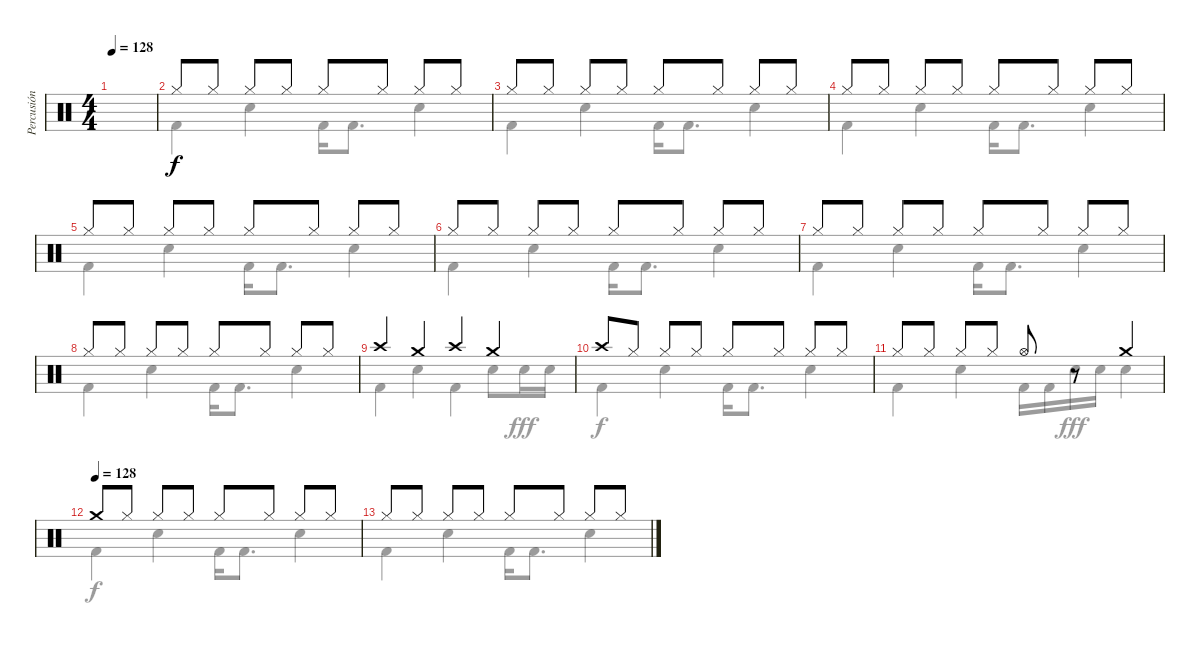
\track ("Percusión" "Percusión") {instrument percussion}
\staff {score}
\articulation defaults
\voice
\ts (4 4)
\tempo 128
\clef neutral
\ks c
|
"Hi-Hat (closed)".8 "Hi-Hat (closed)".8 "Hi-Hat (closed)".8 "Hi-Hat (closed)".8 "Hi-Hat (closed)".8 "Hi-Hat (closed)".8 "Hi-Hat (closed)".8 "Hi-Hat (closed)".8 |
"Hi-Hat (closed)".8 "Hi-Hat (closed)".8 "Hi-Hat (closed)".8 "Hi-Hat (closed)".8 "Hi-Hat (closed)".8 "Hi-Hat (closed)".8 "Hi-Hat (closed)".8 "Hi-Hat (closed)".8 |
"Hi-Hat (closed)".8 "Hi-Hat (closed)".8 "Hi-Hat (closed)".8 "Hi-Hat (closed)".8 "Hi-Hat (closed)".8 "Hi-Hat (closed)".8 "Hi-Hat (closed)".8 "Hi-Hat (closed)".8 |
"Hi-Hat (closed)".8 "Hi-Hat (closed)".8 "Hi-Hat (closed)".8 "Hi-Hat (closed)".8 "Hi-Hat (closed)".8 "Hi-Hat (closed)".8 "Hi-Hat (closed)".8 "Hi-Hat (closed)".8 |
"Hi-Hat (closed)".8 "Hi-Hat (closed)".8 "Hi-Hat (closed)".8 "Hi-Hat (closed)".8 "Hi-Hat (closed)".8 "Hi-Hat (closed)".8 "Hi-Hat (closed)".8 "Hi-Hat (closed)".8 |
"Hi-Hat (closed)".8 "Hi-Hat (closed)".8 "Hi-Hat (closed)".8 "Hi-Hat (closed)".8 "Hi-Hat (closed)".8 "Hi-Hat (closed)".8 "Hi-Hat (closed)".8 "Hi-Hat (closed)".8 |
"Hi-Hat (closed)".8 "Hi-Hat (closed)".8 "Hi-Hat (closed)".8 "Hi-Hat (closed)".8 "Hi-Hat (closed)".8 "Hi-Hat (closed)".8 "Hi-Hat (closed)".8 "Hi-Hat (closed)".8 |
"Crash high (hit)".4 "Crash medium (hit)".4 "Crash high (hit)".4 "Crash medium (hit)".4 |
"Crash high (hit)".8 "Hi-Hat (closed)".8 "Hi-Hat (closed)".8 "Hi-Hat (closed)".8 "Hi-Hat (closed)".8 "Hi-Hat (closed)".8 "Hi-Hat (closed)".8 "Hi-Hat (closed)".8 |
"Hi-Hat (closed)".8 "Hi-Hat (closed)".8 "Hi-Hat (closed)".8 "Hi-Hat (closed)".8 "Hi-Hat (open)".8 r.8 "Crash medium (hit)".4 |
\tempo (128)
"Crash medium (hit)".8{volume 12 balance 8} "Hi-Hat (closed)".8 "Hi-Hat (closed)".8 "Hi-Hat (closed)".8 "Hi-Hat (closed)".8 "Hi-Hat (closed)".8 "Hi-Hat (closed)".8 "Hi-Hat (closed)".8 |
"Hi-Hat (closed)".8 "Hi-Hat (closed)".8 "Hi-Hat (closed)".8 "Hi-Hat (closed)".8 "Hi-Hat (closed)".8 "Hi-Hat (closed)".8 "Hi-Hat (closed)".8 "Hi-Hat (closed)".8 |
|
|
\voice
\clef neutral
\ottava regular
\simile none
\ks c
|
"Kick (hit) 2".4 "Electric Snare (hit)".4 "Kick (hit) 2".16 "Kick (hit) 2".8{d} "Electric Snare (hit)".4 |
"Kick (hit) 2".4 "Electric Snare (hit)".4 "Kick (hit) 2".16 "Kick (hit) 2".8{d} "Electric Snare (hit)".4 |
"Kick (hit) 2".4 "Electric Snare (hit)".4 "Kick (hit) 2".16 "Kick (hit) 2".8{d} "Electric Snare (hit)".4 |
"Kick (hit) 2".4 "Electric Snare (hit)".4 "Kick (hit) 2".16 "Kick (hit) 2".8{d} "Electric Snare (hit)".4 |
"Kick (hit) 2".4 "Electric Snare (hit)".4 "Kick (hit) 2".16 "Kick (hit) 2".8{d} "Electric Snare (hit)".4 |
"Kick (hit) 2".4 "Electric Snare (hit)".4 "Kick (hit) 2".16 "Kick (hit) 2".8{d} "Electric Snare (hit)".4 |
"Kick (hit) 2".4 "Electric Snare (hit)".4 "Kick (hit) 2".16 "Kick (hit) 2".8{d} "Electric Snare (hit)".4 |
"Kick (hit) 2".4 "Electric Snare (hit)".4 "Kick (hit) 2".4 "Electric Snare (hit)".8 "Electric Snare (hit)".16{dy fff} "Electric Snare (hit)".16 |
"Kick (hit) 2".4{dy f} "Electric Snare (hit)".4 "Kick (hit) 2".16 "Kick (hit) 2".8{d} "Electric Snare (hit)".4 |
"Kick (hit) 2".4 "Electric Snare (hit)".4 "Kick (hit) 2".16 "Kick (hit) 2".16 "Electric Snare (hit)".16{dy fff} "Electric Snare (hit)".16 "Electric Snare (hit)".4 |
"Kick (hit) 2".4{dy f} "Electric Snare (hit)".4 "Kick (hit) 2".16 "Kick (hit) 2".8{d} "Electric Snare (hit)".4 |
"Kick (hit) 2".4 "Electric Snare (hit)".4 "Kick (hit) 2".16 "Kick (hit) 2".8{d} "Electric Snare (hit)".4 |
|
|
